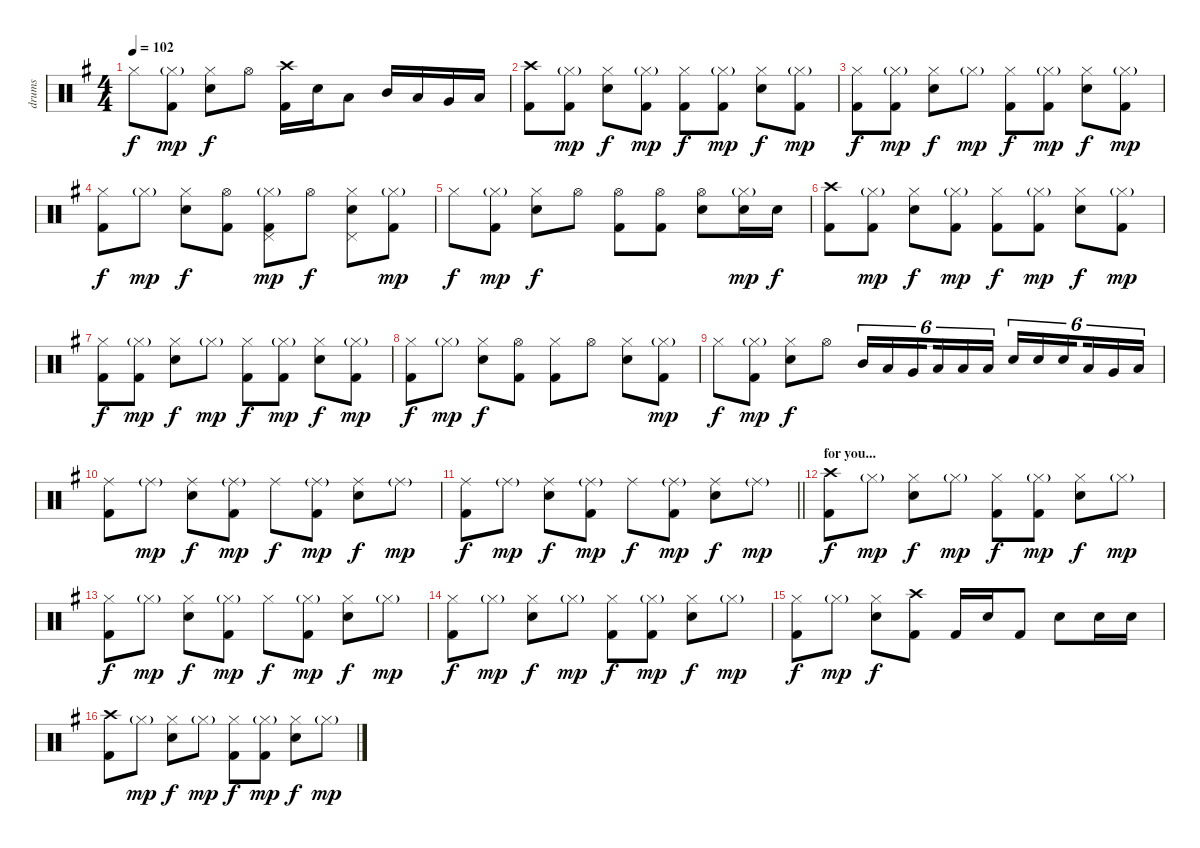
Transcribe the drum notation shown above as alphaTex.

\track ("drums" "drums") {instrument percussion}
\staff {score}
\articulation defaults
\ts (4 4)
\tempo 102
\clef neutral
\ks eminor "Hi-Hat (closed)".8{dy f}
("Hi-Hat (closed)"{g} "Kick (hit) 2").8{dy mp} ("Hi-Hat (closed)" "Snare (hit) 2").8{dy f} "Hi-Hat (open)".8 ("Crash high (hit)" "Kick (hit) 2").16 "Snare (hit) 2".16 "Low Tom (hit)".8 "Mid Tom (hit)".16 "Low Tom (hit)".16 "Very Low Tom (hit)".16 "Low Floor Tom (hit)".16 |
("Crash high (hit)" "Kick (hit) 2").8 ("Hi-Hat (closed)"{g} "Kick (hit) 2").8{dy mp} ("Hi-Hat (closed)" "Snare (hit) 2").8{dy f} ("Hi-Hat (closed)"{g} "Kick (hit) 2").8{dy mp} ("Hi-Hat (closed)" "Kick (hit) 2").8{dy f} ("Hi-Hat (closed)"{g} "Kick (hit) 2").8{dy mp} ("Hi-Hat (closed)" "Snare (hit) 2").8{dy f} ("Hi-Hat (closed)"{g} "Kick (hit) 2").8{dy mp} |
("Hi-Hat (closed)" "Kick (hit) 2").8{dy f} ("Hi-Hat (closed)"{g} "Kick (hit) 2").8{dy mp} ("Hi-Hat (closed)" "Snare (hit) 2").8{dy f} "Hi-Hat (closed)"{g}.8{dy mp} ("Hi-Hat (closed)" "Kick (hit) 2").8{dy f} ("Hi-Hat (closed)"{g} "Kick (hit) 2").8{dy mp} ("Hi-Hat (closed)" "Snare (hit) 2").8{dy f} ("Hi-Hat (closed)"{g} "Kick (hit) 2").8{dy mp} |
("Hi-Hat (closed)" "Kick (hit) 2").8{dy f} "Hi-Hat (closed)"{g}.8{dy mp} ("Hi-Hat (closed)" "Snare (hit) 2").8{dy f} ("Hi-Hat (open)" "Kick (hit) 2").8 ("Hi-Hat (closed)"{g} "Pedal Hi-Hat (hit)" "Kick (hit) 2").8{dy mp} "Hi-Hat (open)".8{dy f} ("Hi-Hat (closed)" "Snare (hit) 2" "Pedal Hi-Hat (hit)").8 ("Hi-Hat (closed)"{g} "Kick (hit) 2").8{dy mp} |
"Hi-Hat (closed)".8{dy f} ("Hi-Hat (closed)"{g} "Kick (hit) 2").8{dy mp} ("Hi-Hat (closed)" "Snare (hit) 2").8{dy f} "Hi-Hat (open)".8 ("Hi-Hat (open)" "Kick (hit) 2").8 ("Hi-Hat (open)" "Kick (hit) 2").8 ("Hi-Hat (open)" "Snare (hit) 2").8 ("Hi-Hat (closed)"{g} "Snare (hit) 2").16{dy mp} "Snare (hit) 2".16{dy f} |
("Crash high (hit)" "Kick (hit) 2").8 ("Hi-Hat (closed)"{g} "Kick (hit) 2").8{dy mp} ("Hi-Hat (closed)" "Snare (hit) 2").8{dy f} ("Hi-Hat (closed)"{g} "Kick (hit) 2").8{dy mp} ("Hi-Hat (closed)" "Kick (hit) 2").8{dy f} ("Hi-Hat (closed)"{g} "Kick (hit) 2").8{dy mp} ("Hi-Hat (closed)" "Snare (hit) 2").8{dy f} ("Hi-Hat (closed)"{g} "Kick (hit) 2").8{dy mp} |
("Hi-Hat (closed)" "Kick (hit) 2").8{dy f} ("Hi-Hat (closed)"{g} "Kick (hit) 2").8{dy mp} ("Hi-Hat (closed)" "Snare (hit) 2").8{dy f} "Hi-Hat (closed)"{g}.8{dy mp} ("Hi-Hat (closed)" "Kick (hit) 2").8{dy f} ("Hi-Hat (closed)"{g} "Kick (hit) 2").8{dy mp} ("Hi-Hat (closed)" "Snare (hit) 2").8{dy f} ("Hi-Hat (closed)"{g} "Kick (hit) 2").8{dy mp} |
("Hi-Hat (closed)" "Kick (hit) 2").8{dy f} "Hi-Hat (closed)"{g}.8{dy mp} ("Hi-Hat (closed)" "Snare (hit) 2").8{dy f} ("Hi-Hat (open)" "Kick (hit) 2").8 ("Hi-Hat (closed)" "Kick (hit) 2").8 "Hi-Hat (open)".8 ("Hi-Hat (closed)" "Snare (hit) 2").8 ("Hi-Hat (closed)"{g} "Kick (hit) 2").8{dy mp} |
"Hi-Hat (closed)".8{dy f} ("Hi-Hat (closed)"{g} "Kick (hit) 2").8{dy mp} ("Hi-Hat (closed)" "Snare (hit) 2").8{dy f} "Hi-Hat (open)".8 "Mid Tom (hit)".16{tu (6 4)} "Low Tom (hit)".16{tu (6 4)} "Very Low Tom (hit)".16{tu (6 4) beam splitsecondary} "Low Floor Tom (hit)".16{tu (6 4)} "Low Floor Tom (hit)".16{tu (6 4)} "Low Floor Tom (hit)".16{tu (6 4)} "Snare (hit) 2".16{tu (6 4)} "Snare (hit) 2".16{tu (6 4)} "Snare (hit) 2".16{tu (6 4) beam splitsecondary} "Low Tom (hit)".16{tu (6 4)} "Very Low Tom (hit)".16{tu (6 4)} "Low Floor Tom (hit)".16{tu (6 4)} |
("Ride (middle)" "Kick (hit) 2").8 "Ride (middle)"{g}.8{dy mp} ("Ride (middle)" "Snare (hit) 2").8{dy f} ("Ride (middle)"{g} "Kick (hit) 2").8{dy mp} "Ride (middle)".8{dy f} ("Ride (middle)"{g} "Kick (hit) 2").8{dy mp} ("Ride (middle)" "Snare (hit) 2").8{dy f} "Ride (middle)"{g}.8{dy mp} |
\barLineRight lightlight
("Ride (middle)" "Kick (hit) 2").8{dy f} "Ride (middle)"{g}.8{dy mp} ("Ride (middle)" "Snare (hit) 2").8{dy f} ("Ride (middle)"{g} "Kick (hit) 2").8{dy mp} "Ride (middle)".8{dy f} ("Ride (middle)"{g} "Kick (hit) 2").8{dy mp} ("Ride (middle)" "Snare (hit) 2").8{dy f} "Ride (middle)"{g}.8{dy mp} |
\section ("" "for you...")
("Crash high (hit)" "Kick (hit) 2").8{dy f} "Hi-Hat (closed)"{g}.8{dy mp} ("Hi-Hat (closed)" "Snare (hit) 2").8{dy f} "Hi-Hat (closed)"{g}.8{dy mp} ("Hi-Hat (closed)" "Kick (hit) 2").8{dy f} ("Hi-Hat (closed)"{g} "Kick (hit) 2").8{dy mp} ("Hi-Hat (closed)" "Snare (hit) 2").8{dy f} "Hi-Hat (closed)"{g}.8{dy mp} |
("Hi-Hat (closed)" "Kick (hit) 2").8{dy f} "Hi-Hat (closed)"{g}.8{dy mp} ("Hi-Hat (closed)" "Snare (hit) 2").8{dy f} ("Hi-Hat (closed)"{g} "Kick (hit) 2").8{dy mp} "Hi-Hat (closed)".8{dy f} ("Hi-Hat (closed)"{g} "Kick (hit) 2").8{dy mp} ("Hi-Hat (closed)" "Snare (hit) 2").8{dy f} "Hi-Hat (closed)"{g}.8{dy mp} |
("Hi-Hat (closed)" "Kick (hit) 2").8{dy f} "Hi-Hat (closed)"{g}.8{dy mp} ("Hi-Hat (closed)" "Snare (hit) 2").8{dy f} "Hi-Hat (closed)"{g}.8{dy mp} ("Hi-Hat (closed)" "Kick (hit) 2").8{dy f} ("Hi-Hat (closed)"{g} "Kick (hit) 2").8{dy mp} ("Hi-Hat (closed)" "Snare (hit) 2").8{dy f} "Hi-Hat (closed)"{g}.8{dy mp} |
("Hi-Hat (closed)" "Kick (hit) 2").8{dy f} "Hi-Hat (closed)"{g}.8{dy mp} ("Hi-Hat (closed)" "Snare (hit) 2").8{dy f} ("Crash high (hit)" "Kick (hit) 2").8 "Kick (hit) 2".16 "Snare (hit) 2".16 "Kick (hit) 2".8 "Snare (hit) 2".8 "Snare (hit) 2".16 "Snare (hit) 2".16 |
("Crash high (hit)" "Kick (hit) 2").8 "Hi-Hat (closed)"{g}.8{dy mp} ("Hi-Hat (closed)" "Snare (hit) 2").8{dy f} "Hi-Hat (closed)"{g}.8{dy mp} ("Hi-Hat (closed)" "Kick (hit) 2").8{dy f} ("Hi-Hat (closed)"{g} "Kick (hit) 2").8{dy mp} ("Hi-Hat (closed)" "Snare (hit) 2").8{dy f} "Hi-Hat (closed)"{g}.8{dy mp}
